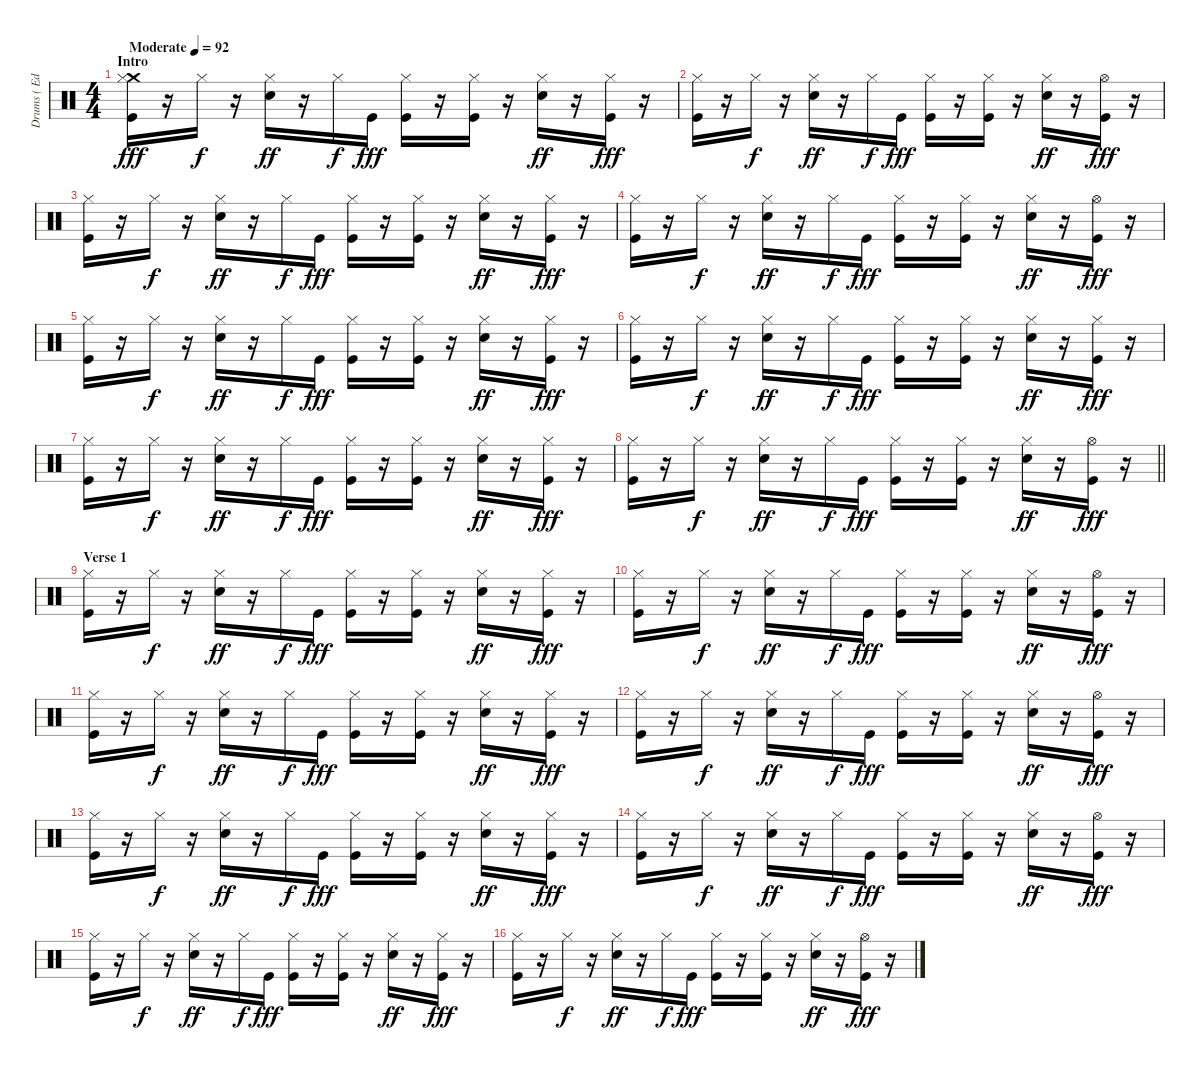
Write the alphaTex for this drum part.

\track ("Drums ( Edward O'Brien )" "Drums ( Ed") {instrument percussion}
\staff {score}
\articulation defaults
\ts (4 4)
\section ("" "Intro")
\tempo (92 "Moderate")
\clef neutral
\ks c
("Crash medium (hit)" "Hi-Hat (closed)" "Kick (hit)").16{dy fff} r.16 "Hi-Hat (closed)".16{dy f} r.16 ("Hi-Hat (closed)" "Electric Snare (hit)").16{dy ff} r.16 "Hi-Hat (closed)".16{dy f} "Kick (hit)".16{dy fff} ("Hi-Hat (closed)" "Kick (hit)").16 r.16 ("Hi-Hat (closed)" "Kick (hit)").16 r.16 ("Hi-Hat (closed)" "Electric Snare (hit)").16{dy ff} r.16 ("Hi-Hat (closed)" "Kick (hit)").16{dy fff} r.16 |
("Hi-Hat (closed)" "Kick (hit)").16 r.16 "Hi-Hat (closed)".16{dy f} r.16 ("Hi-Hat (closed)" "Electric Snare (hit)").16{dy ff} r.16 "Hi-Hat (closed)".16{dy f} "Kick (hit)".16{dy fff} ("Hi-Hat (closed)" "Kick (hit)").16 r.16 ("Hi-Hat (closed)" "Kick (hit)").16 r.16 ("Hi-Hat (closed)" "Electric Snare (hit)").16{dy ff} r.16 ("Hi-Hat (open)" "Kick (hit)").16{dy fff} r.16 |
("Hi-Hat (closed)" "Kick (hit)").16 r.16 "Hi-Hat (closed)".16{dy f} r.16 ("Hi-Hat (closed)" "Electric Snare (hit)").16{dy ff} r.16 "Hi-Hat (closed)".16{dy f} "Kick (hit)".16{dy fff} ("Hi-Hat (closed)" "Kick (hit)").16 r.16 ("Hi-Hat (closed)" "Kick (hit)").16 r.16 ("Hi-Hat (closed)" "Electric Snare (hit)").16{dy ff} r.16 ("Hi-Hat (closed)" "Kick (hit)").16{dy fff} r.16 |
("Hi-Hat (closed)" "Kick (hit)").16 r.16 "Hi-Hat (closed)".16{dy f} r.16 ("Hi-Hat (closed)" "Electric Snare (hit)").16{dy ff} r.16 "Hi-Hat (closed)".16{dy f} "Kick (hit)".16{dy fff} ("Hi-Hat (closed)" "Kick (hit)").16 r.16 ("Hi-Hat (closed)" "Kick (hit)").16 r.16 ("Hi-Hat (closed)" "Electric Snare (hit)").16{dy ff} r.16 ("Hi-Hat (open)" "Kick (hit)").16{dy fff} r.16 |
("Hi-Hat (closed)" "Kick (hit)").16 r.16 "Hi-Hat (closed)".16{dy f} r.16 ("Hi-Hat (closed)" "Electric Snare (hit)").16{dy ff} r.16 "Hi-Hat (closed)".16{dy f} "Kick (hit)".16{dy fff} ("Hi-Hat (closed)" "Kick (hit)").16 r.16 ("Hi-Hat (closed)" "Kick (hit)").16 r.16 ("Hi-Hat (closed)" "Electric Snare (hit)").16{dy ff} r.16 ("Hi-Hat (closed)" "Kick (hit)").16{dy fff} r.16 |
("Hi-Hat (closed)" "Kick (hit)").16 r.16 "Hi-Hat (closed)".16{dy f} r.16 ("Hi-Hat (closed)" "Electric Snare (hit)").16{dy ff} r.16 "Hi-Hat (closed)".16{dy f} "Kick (hit)".16{dy fff} ("Hi-Hat (closed)" "Kick (hit)").16 r.16 ("Hi-Hat (closed)" "Kick (hit)").16 r.16 ("Hi-Hat (closed)" "Electric Snare (hit)").16{dy ff} r.16 ("Hi-Hat (closed)" "Kick (hit)").16{dy fff} r.16 |
("Hi-Hat (closed)" "Kick (hit)").16 r.16 "Hi-Hat (closed)".16{dy f} r.16 ("Hi-Hat (closed)" "Electric Snare (hit)").16{dy ff} r.16 "Hi-Hat (closed)".16{dy f} "Kick (hit)".16{dy fff} ("Hi-Hat (closed)" "Kick (hit)").16 r.16 ("Hi-Hat (closed)" "Kick (hit)").16 r.16 ("Hi-Hat (closed)" "Electric Snare (hit)").16{dy ff} r.16 ("Hi-Hat (closed)" "Kick (hit)").16{dy fff} r.16 |
\barLineRight lightlight
("Hi-Hat (closed)" "Kick (hit)").16 r.16 "Hi-Hat (closed)".16{dy f} r.16 ("Hi-Hat (closed)" "Electric Snare (hit)").16{dy ff} r.16 "Hi-Hat (closed)".16{dy f} "Kick (hit)".16{dy fff} ("Hi-Hat (closed)" "Kick (hit)").16 r.16 ("Hi-Hat (closed)" "Kick (hit)").16 r.16 ("Hi-Hat (closed)" "Electric Snare (hit)").16{dy ff} r.16 ("Hi-Hat (open)" "Kick (hit)").16{dy fff} r.16 |
\section ("" "Verse 1")
("Hi-Hat (closed)" "Kick (hit)").16 r.16 "Hi-Hat (closed)".16{dy f} r.16 ("Hi-Hat (closed)" "Electric Snare (hit)").16{dy ff} r.16 "Hi-Hat (closed)".16{dy f} "Kick (hit)".16{dy fff} ("Hi-Hat (closed)" "Kick (hit)").16 r.16 ("Hi-Hat (closed)" "Kick (hit)").16 r.16 ("Hi-Hat (closed)" "Electric Snare (hit)").16{dy ff} r.16 ("Hi-Hat (closed)" "Kick (hit)").16{dy fff} r.16 |
("Hi-Hat (closed)" "Kick (hit)").16 r.16 "Hi-Hat (closed)".16{dy f} r.16 ("Hi-Hat (closed)" "Electric Snare (hit)").16{dy ff} r.16 "Hi-Hat (closed)".16{dy f} "Kick (hit)".16{dy fff} ("Hi-Hat (closed)" "Kick (hit)").16 r.16 ("Hi-Hat (closed)" "Kick (hit)").16 r.16 ("Hi-Hat (closed)" "Electric Snare (hit)").16{dy ff} r.16 ("Hi-Hat (open)" "Kick (hit)").16{dy fff} r.16 |
("Hi-Hat (closed)" "Kick (hit)").16 r.16 "Hi-Hat (closed)".16{dy f} r.16 ("Hi-Hat (closed)" "Electric Snare (hit)").16{dy ff} r.16 "Hi-Hat (closed)".16{dy f} "Kick (hit)".16{dy fff} ("Hi-Hat (closed)" "Kick (hit)").16 r.16 ("Hi-Hat (closed)" "Kick (hit)").16 r.16 ("Hi-Hat (closed)" "Electric Snare (hit)").16{dy ff} r.16 ("Hi-Hat (closed)" "Kick (hit)").16{dy fff} r.16 |
("Hi-Hat (closed)" "Kick (hit)").16 r.16 "Hi-Hat (closed)".16{dy f} r.16 ("Hi-Hat (closed)" "Electric Snare (hit)").16{dy ff} r.16 "Hi-Hat (closed)".16{dy f} "Kick (hit)".16{dy fff} ("Hi-Hat (closed)" "Kick (hit)").16 r.16 ("Hi-Hat (closed)" "Kick (hit)").16 r.16 ("Hi-Hat (closed)" "Electric Snare (hit)").16{dy ff} r.16 ("Hi-Hat (open)" "Kick (hit)").16{dy fff} r.16 |
("Hi-Hat (closed)" "Kick (hit)").16 r.16 "Hi-Hat (closed)".16{dy f} r.16 ("Hi-Hat (closed)" "Electric Snare (hit)").16{dy ff} r.16 "Hi-Hat (closed)".16{dy f} "Kick (hit)".16{dy fff} ("Hi-Hat (closed)" "Kick (hit)").16 r.16 ("Hi-Hat (closed)" "Kick (hit)").16 r.16 ("Hi-Hat (closed)" "Electric Snare (hit)").16{dy ff} r.16 ("Hi-Hat (closed)" "Kick (hit)").16{dy fff} r.16 |
("Hi-Hat (closed)" "Kick (hit)").16 r.16 "Hi-Hat (closed)".16{dy f} r.16 ("Hi-Hat (closed)" "Electric Snare (hit)").16{dy ff} r.16 "Hi-Hat (closed)".16{dy f} "Kick (hit)".16{dy fff} ("Hi-Hat (closed)" "Kick (hit)").16 r.16 ("Hi-Hat (closed)" "Kick (hit)").16 r.16 ("Hi-Hat (closed)" "Electric Snare (hit)").16{dy ff} r.16 ("Hi-Hat (open)" "Kick (hit)").16{dy fff} r.16 |
("Hi-Hat (closed)" "Kick (hit)").16 r.16 "Hi-Hat (closed)".16{dy f} r.16 ("Hi-Hat (closed)" "Electric Snare (hit)").16{dy ff} r.16 "Hi-Hat (closed)".16{dy f} "Kick (hit)".16{dy fff} ("Hi-Hat (closed)" "Kick (hit)").16 r.16 ("Hi-Hat (closed)" "Kick (hit)").16 r.16 ("Hi-Hat (closed)" "Electric Snare (hit)").16{dy ff} r.16 ("Hi-Hat (closed)" "Kick (hit)").16{dy fff} r.16 |
("Hi-Hat (closed)" "Kick (hit)").16 r.16 "Hi-Hat (closed)".16{dy f} r.16 ("Hi-Hat (closed)" "Electric Snare (hit)").16{dy ff} r.16 "Hi-Hat (closed)".16{dy f} "Kick (hit)".16{dy fff} ("Hi-Hat (closed)" "Kick (hit)").16 r.16 ("Hi-Hat (closed)" "Kick (hit)").16 r.16 ("Hi-Hat (closed)" "Electric Snare (hit)").16{dy ff} r.16 ("Hi-Hat (open)" "Kick (hit)").16{dy fff} r.16
